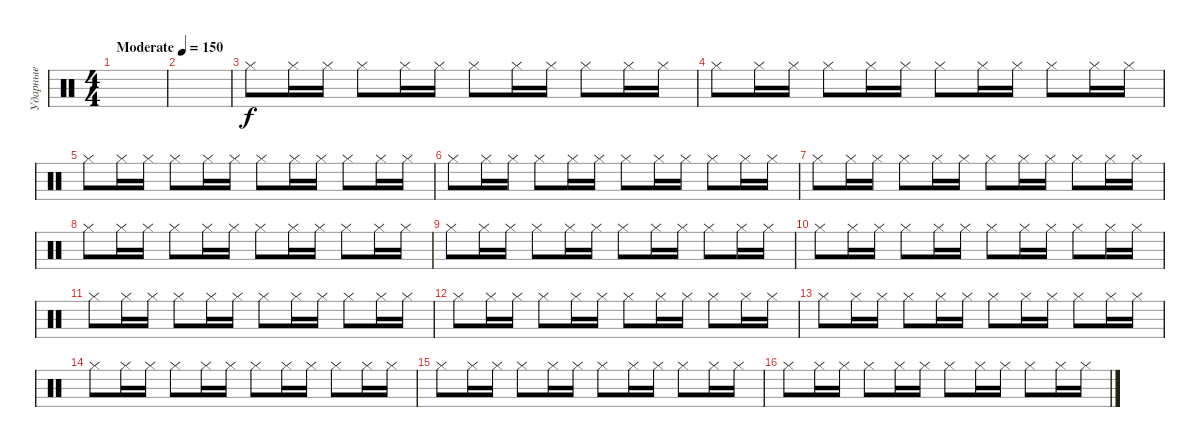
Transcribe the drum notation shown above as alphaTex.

\track ("Ударные" "Ударные") {instrument percussion}
\staff {score}
\articulation defaults
\ts (4 4)
\tempo (150 "Moderate")
\clef neutral
\ks c
|
|
"Hi-Hat (closed)".8 "Hi-Hat (closed)".16 "Hi-Hat (closed)".16 "Hi-Hat (closed)".8 "Hi-Hat (closed)".16 "Hi-Hat (closed)".16 "Hi-Hat (closed)".8 "Hi-Hat (closed)".16 "Hi-Hat (closed)".16 "Hi-Hat (closed)".8 "Hi-Hat (closed)".16 "Hi-Hat (closed)".16 |
"Hi-Hat (closed)".8 "Hi-Hat (closed)".16 "Hi-Hat (closed)".16 "Hi-Hat (closed)".8 "Hi-Hat (closed)".16 "Hi-Hat (closed)".16 "Hi-Hat (closed)".8 "Hi-Hat (closed)".16 "Hi-Hat (closed)".16 "Hi-Hat (closed)".8 "Hi-Hat (closed)".16 "Hi-Hat (closed)".16 |
"Hi-Hat (closed)".8 "Hi-Hat (closed)".16 "Hi-Hat (closed)".16 "Hi-Hat (closed)".8 "Hi-Hat (closed)".16 "Hi-Hat (closed)".16 "Hi-Hat (closed)".8 "Hi-Hat (closed)".16 "Hi-Hat (closed)".16 "Hi-Hat (closed)".8 "Hi-Hat (closed)".16 "Hi-Hat (closed)".16 |
"Hi-Hat (closed)".8 "Hi-Hat (closed)".16 "Hi-Hat (closed)".16 "Hi-Hat (closed)".8 "Hi-Hat (closed)".16 "Hi-Hat (closed)".16 "Hi-Hat (closed)".8 "Hi-Hat (closed)".16 "Hi-Hat (closed)".16 "Hi-Hat (closed)".8 "Hi-Hat (closed)".16 "Hi-Hat (closed)".16 |
"Hi-Hat (closed)".8 "Hi-Hat (closed)".16 "Hi-Hat (closed)".16 "Hi-Hat (closed)".8 "Hi-Hat (closed)".16 "Hi-Hat (closed)".16 "Hi-Hat (closed)".8 "Hi-Hat (closed)".16 "Hi-Hat (closed)".16 "Hi-Hat (closed)".8 "Hi-Hat (closed)".16 "Hi-Hat (closed)".16 |
"Hi-Hat (closed)".8 "Hi-Hat (closed)".16 "Hi-Hat (closed)".16 "Hi-Hat (closed)".8 "Hi-Hat (closed)".16 "Hi-Hat (closed)".16 "Hi-Hat (closed)".8 "Hi-Hat (closed)".16 "Hi-Hat (closed)".16 "Hi-Hat (closed)".8 "Hi-Hat (closed)".16 "Hi-Hat (closed)".16 |
"Hi-Hat (closed)".8 "Hi-Hat (closed)".16 "Hi-Hat (closed)".16 "Hi-Hat (closed)".8 "Hi-Hat (closed)".16 "Hi-Hat (closed)".16 "Hi-Hat (closed)".8 "Hi-Hat (closed)".16 "Hi-Hat (closed)".16 "Hi-Hat (closed)".8 "Hi-Hat (closed)".16 "Hi-Hat (closed)".16 |
"Hi-Hat (closed)".8 "Hi-Hat (closed)".16 "Hi-Hat (closed)".16 "Hi-Hat (closed)".8 "Hi-Hat (closed)".16 "Hi-Hat (closed)".16 "Hi-Hat (closed)".8 "Hi-Hat (closed)".16 "Hi-Hat (closed)".16 "Hi-Hat (closed)".8 "Hi-Hat (closed)".16 "Hi-Hat (closed)".16 |
"Hi-Hat (closed)".8 "Hi-Hat (closed)".16 "Hi-Hat (closed)".16 "Hi-Hat (closed)".8 "Hi-Hat (closed)".16 "Hi-Hat (closed)".16 "Hi-Hat (closed)".8 "Hi-Hat (closed)".16 "Hi-Hat (closed)".16 "Hi-Hat (closed)".8 "Hi-Hat (closed)".16 "Hi-Hat (closed)".16 |
"Hi-Hat (closed)".8 "Hi-Hat (closed)".16 "Hi-Hat (closed)".16 "Hi-Hat (closed)".8 "Hi-Hat (closed)".16 "Hi-Hat (closed)".16 "Hi-Hat (closed)".8 "Hi-Hat (closed)".16 "Hi-Hat (closed)".16 "Hi-Hat (closed)".8 "Hi-Hat (closed)".16 "Hi-Hat (closed)".16 |
"Hi-Hat (closed)".8 "Hi-Hat (closed)".16 "Hi-Hat (closed)".16 "Hi-Hat (closed)".8 "Hi-Hat (closed)".16 "Hi-Hat (closed)".16 "Hi-Hat (closed)".8 "Hi-Hat (closed)".16 "Hi-Hat (closed)".16 "Hi-Hat (closed)".8 "Hi-Hat (closed)".16 "Hi-Hat (closed)".16 |
"Hi-Hat (closed)".8 "Hi-Hat (closed)".16 "Hi-Hat (closed)".16 "Hi-Hat (closed)".8 "Hi-Hat (closed)".16 "Hi-Hat (closed)".16 "Hi-Hat (closed)".8 "Hi-Hat (closed)".16 "Hi-Hat (closed)".16 "Hi-Hat (closed)".8 "Hi-Hat (closed)".16 "Hi-Hat (closed)".16 |
"Hi-Hat (closed)".8 "Hi-Hat (closed)".16 "Hi-Hat (closed)".16 "Hi-Hat (closed)".8 "Hi-Hat (closed)".16 "Hi-Hat (closed)".16 "Hi-Hat (closed)".8 "Hi-Hat (closed)".16 "Hi-Hat (closed)".16 "Hi-Hat (closed)".8 "Hi-Hat (closed)".16 "Hi-Hat (closed)".16 |
"Hi-Hat (closed)".8 "Hi-Hat (closed)".16 "Hi-Hat (closed)".16 "Hi-Hat (closed)".8 "Hi-Hat (closed)".16 "Hi-Hat (closed)".16 "Hi-Hat (closed)".8 "Hi-Hat (closed)".16 "Hi-Hat (closed)".16 "Hi-Hat (closed)".8 "Hi-Hat (closed)".16 "Hi-Hat (closed)".16
